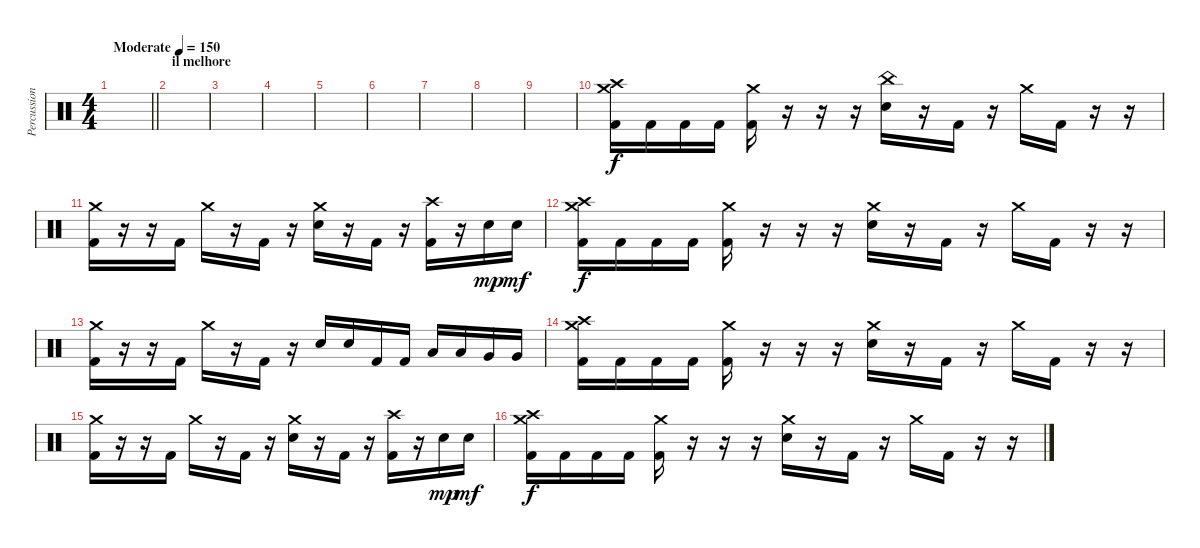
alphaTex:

\track ("Percussioni" "Percussion") {instrument percussion}
\staff {score}
\articulation defaults
\ts (4 4)
\tempo (150 "Moderate")
\clef neutral
\barLineRight lightlight
\ks c
|
\section ("" "il melhore")
|
|
|
|
|
|
|
|
("Crash high (hit)" "Kick (hit) 2" "Crash medium (hit)").16 "Kick (hit) 2".16 "Kick (hit) 2".16 "Kick (hit) 2".16 ("Kick (hit) 2" "Crash medium (hit)").16 r.16 r.16 r.16 ("Snare (hit) 2" "China (hit)").16 r.16 "Kick (hit) 2".16 r.16 "Crash medium (hit)".16 "Kick (hit) 2".16 r.16 r.16 |
("Crash medium (hit)" "Kick (hit) 2").16 r.16 r.16 "Kick (hit) 2".16 "Crash medium (hit)".16 r.16 "Kick (hit) 2".16 r.16 ("Snare (hit) 2" "Crash medium (hit)").16 r.16 "Kick (hit) 2".16 r.16 ("Kick (hit) 2" "Crash high (hit)").16 r.16 "Snare (hit) 2".16{dy mp} "Snare (hit) 2".16{dy mf} |
("Crash high (hit)" "Kick (hit) 2" "Crash medium (hit)").16{dy f} "Kick (hit) 2".16 "Kick (hit) 2".16 "Kick (hit) 2".16 ("Kick (hit) 2" "Crash medium (hit)").16 r.16 r.16 r.16 ("Snare (hit) 2" "Crash medium (hit)").16 r.16 "Kick (hit) 2".16 r.16 "Crash medium (hit)".16 "Kick (hit) 2".16 r.16 r.16 |
("Crash medium (hit)" "Kick (hit) 2").16 r.16 r.16 "Kick (hit) 2".16 "Crash medium (hit)".16 r.16 "Kick (hit) 2".16 r.16 "Snare (hit) 2".16 "Snare (hit) 2".16 "Kick (hit) 2".16 "Kick (hit) 2".16 "Low Tom (hit)".16 "Low Tom (hit)".16 "Very Low Tom (hit)".16 "Very Low Tom (hit)".16 |
("Crash high (hit)" "Kick (hit) 2" "Crash medium (hit)").16 "Kick (hit) 2".16 "Kick (hit) 2".16 "Kick (hit) 2".16 ("Kick (hit) 2" "Crash medium (hit)").16 r.16 r.16 r.16 ("Snare (hit) 2" "Crash medium (hit)").16 r.16 "Kick (hit) 2".16 r.16 "Crash medium (hit)".16 "Kick (hit) 2".16 r.16 r.16 |
("Crash medium (hit)" "Kick (hit) 2").16 r.16 r.16 "Kick (hit) 2".16 "Crash medium (hit)".16 r.16 "Kick (hit) 2".16 r.16 ("Snare (hit) 2" "Crash medium (hit)").16 r.16 "Kick (hit) 2".16 r.16 ("Kick (hit) 2" "Crash high (hit)").16 r.16 "Snare (hit) 2".16{dy mp} "Snare (hit) 2".16{dy mf} |
("Crash high (hit)" "Kick (hit) 2" "Crash medium (hit)").16{dy f} "Kick (hit) 2".16 "Kick (hit) 2".16 "Kick (hit) 2".16 ("Kick (hit) 2" "Crash medium (hit)").16 r.16 r.16 r.16 ("Snare (hit) 2" "Crash medium (hit)").16 r.16 "Kick (hit) 2".16 r.16 "Crash medium (hit)".16 "Kick (hit) 2".16 r.16 r.16
